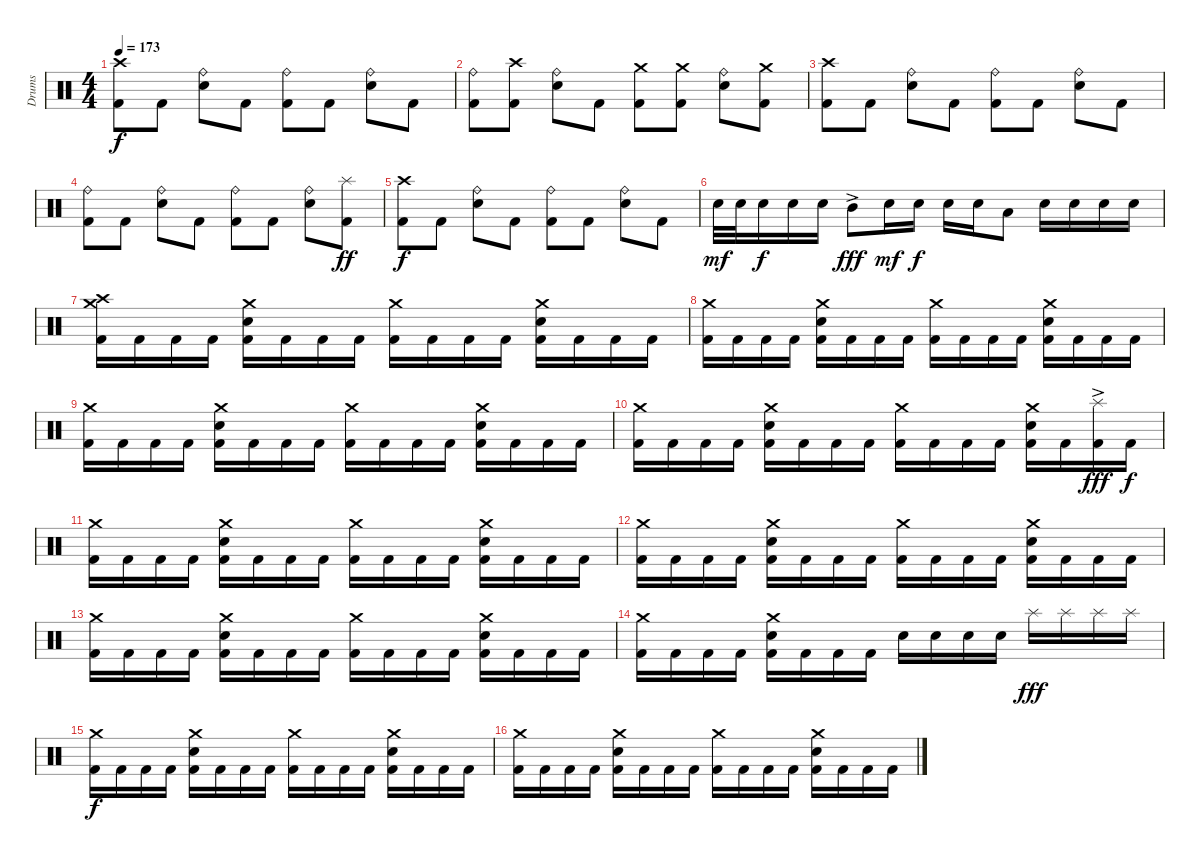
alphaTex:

\track ("Drums" "Drums") {instrument percussion}
\staff {score}
\articulation defaults
\ts (4 4)
\tempo 173
\clef neutral
\ks c
("Crash high (hit)" "Kick (hit) 2").8{dy f} "Kick (hit) 2".8 ("Ride (bell)" "Snare (hit) 2").8 "Kick (hit) 2".8 ("Ride (bell)" "Kick (hit) 2").8 "Kick (hit) 2".8 ("Ride (bell)" "Snare (hit) 2").8 "Kick (hit) 2".8 |
("Ride (bell)" "Kick (hit) 2").8 ("Crash high (hit)" "Kick (hit) 2").8 ("Ride (bell)" "Snare (hit) 2").8 "Kick (hit) 2".8 ("Crash medium (hit)" "Kick (hit) 2").8 ("Crash medium (hit)" "Kick (hit) 2").8 ("Ride (bell)" "Snare (hit) 2").8 ("Crash medium (hit)" "Kick (hit) 2").8 |
("Crash high (hit)" "Kick (hit) 2").8 "Kick (hit) 2".8 ("Ride (bell)" "Snare (hit) 2").8 "Kick (hit) 2".8 ("Ride (bell)" "Kick (hit) 2").8 "Kick (hit) 2".8 ("Ride (bell)" "Snare (hit) 2").8 "Kick (hit) 2".8 |
("Ride (bell)" "Kick (hit) 2").8 "Kick (hit) 2".8 ("Ride (bell)" "Snare (hit) 2").8 "Kick (hit) 2".8 ("Ride (bell)" "Kick (hit) 2").8 "Kick (hit) 2".8 ("Ride (bell)" "Snare (hit) 2").8 ("Splash (hit)" "Kick (hit) 2").8{dy ff} |
("Crash high (hit)" "Kick (hit) 2").8{dy f} "Kick (hit) 2".8 ("Ride (bell)" "Snare (hit) 2").8 "Kick (hit) 2".8 ("Ride (bell)" "Kick (hit) 2").8 "Kick (hit) 2".8 ("Ride (bell)" "Snare (hit) 2").8 "Kick (hit) 2".8 |
"Snare (hit) 2".32{dy mf} "Snare (hit) 2".32 "Snare (hit) 2".16{dy f} "Snare (hit) 2".16 "Snare (hit) 2".16 "Mid Tom (hit)"{ac}.8{dy fff} "Snare (hit) 2".16{dy mf} "Snare (hit) 2".16{dy f} "Snare (hit) 2".16 "Snare (hit) 2".16 "Low Tom (hit)".8 "Snare (hit) 2".16 "Snare (hit) 2".16 "Snare (hit) 2".16 "Snare (hit) 2".16 |
("Crash high (hit)" "Crash medium (hit)" "Kick (hit) 2").16 "Kick (hit) 2".16 "Kick (hit) 2".16 "Kick (hit) 2".16 ("Crash medium (hit)" "Snare (hit) 2" "Kick (hit) 2").16 "Kick (hit) 2".16 "Kick (hit) 2".16 "Kick (hit) 2".16 ("Crash medium (hit)" "Kick (hit) 2").16 "Kick (hit) 2".16 "Kick (hit) 2".16 "Kick (hit) 2".16 ("Crash medium (hit)" "Snare (hit) 2" "Kick (hit) 2").16 "Kick (hit) 2".16 "Kick (hit) 2".16 "Kick (hit) 2".16 |
("Crash medium (hit)" "Kick (hit) 2").16 "Kick (hit) 2".16 "Kick (hit) 2".16 "Kick (hit) 2".16 ("Crash medium (hit)" "Snare (hit) 2" "Kick (hit) 2").16 "Kick (hit) 2".16 "Kick (hit) 2".16 "Kick (hit) 2".16 ("Crash medium (hit)" "Kick (hit) 2").16 "Kick (hit) 2".16 "Kick (hit) 2".16 "Kick (hit) 2".16 ("Crash medium (hit)" "Snare (hit) 2" "Kick (hit) 2").16 "Kick (hit) 2".16 "Kick (hit) 2".16 "Kick (hit) 2".16 |
("Crash medium (hit)" "Kick (hit) 2").16 "Kick (hit) 2".16 "Kick (hit) 2".16 "Kick (hit) 2".16 ("Crash medium (hit)" "Snare (hit) 2" "Kick (hit) 2").16 "Kick (hit) 2".16 "Kick (hit) 2".16 "Kick (hit) 2".16 ("Crash medium (hit)" "Kick (hit) 2").16 "Kick (hit) 2".16 "Kick (hit) 2".16 "Kick (hit) 2".16 ("Crash medium (hit)" "Snare (hit) 2" "Kick (hit) 2").16 "Kick (hit) 2".16 "Kick (hit) 2".16 "Kick (hit) 2".16 |
("Crash medium (hit)" "Kick (hit) 2").16 "Kick (hit) 2".16 "Kick (hit) 2".16 "Kick (hit) 2".16 ("Crash medium (hit)" "Snare (hit) 2" "Kick (hit) 2").16 "Kick (hit) 2".16 "Kick (hit) 2".16 "Kick (hit) 2".16 ("Crash medium (hit)" "Kick (hit) 2").16 "Kick (hit) 2".16 "Kick (hit) 2".16 "Kick (hit) 2".16 ("Crash medium (hit)" "Snare (hit) 2" "Kick (hit) 2").16 "Kick (hit) 2".16 ("Splash (hit)"{ac} "Kick (hit) 2").16{dy fff} "Kick (hit) 2".16{dy f} |
("Crash medium (hit)" "Kick (hit) 2").16 "Kick (hit) 2".16 "Kick (hit) 2".16 "Kick (hit) 2".16 ("Crash medium (hit)" "Snare (hit) 2" "Kick (hit) 2").16 "Kick (hit) 2".16 "Kick (hit) 2".16 "Kick (hit) 2".16 ("Crash medium (hit)" "Kick (hit) 2").16 "Kick (hit) 2".16 "Kick (hit) 2".16 "Kick (hit) 2".16 ("Crash medium (hit)" "Snare (hit) 2" "Kick (hit) 2").16 "Kick (hit) 2".16 "Kick (hit) 2".16 "Kick (hit) 2".16 |
("Crash medium (hit)" "Kick (hit) 2").16 "Kick (hit) 2".16 "Kick (hit) 2".16 "Kick (hit) 2".16 ("Crash medium (hit)" "Snare (hit) 2" "Kick (hit) 2").16 "Kick (hit) 2".16 "Kick (hit) 2".16 "Kick (hit) 2".16 ("Crash medium (hit)" "Kick (hit) 2").16 "Kick (hit) 2".16 "Kick (hit) 2".16 "Kick (hit) 2".16 ("Crash medium (hit)" "Snare (hit) 2" "Kick (hit) 2").16 "Kick (hit) 2".16 "Kick (hit) 2".16 "Kick (hit) 2".16 |
("Crash medium (hit)" "Kick (hit) 2").16 "Kick (hit) 2".16 "Kick (hit) 2".16 "Kick (hit) 2".16 ("Crash medium (hit)" "Snare (hit) 2" "Kick (hit) 2").16 "Kick (hit) 2".16 "Kick (hit) 2".16 "Kick (hit) 2".16 ("Crash medium (hit)" "Kick (hit) 2").16 "Kick (hit) 2".16 "Kick (hit) 2".16 "Kick (hit) 2".16 ("Crash medium (hit)" "Snare (hit) 2" "Kick (hit) 2").16 "Kick (hit) 2".16 "Kick (hit) 2".16 "Kick (hit) 2".16 |
("Crash medium (hit)" "Kick (hit) 2").16 "Kick (hit) 2".16 "Kick (hit) 2".16 "Kick (hit) 2".16 ("Crash medium (hit)" "Snare (hit) 2" "Kick (hit) 2").16 "Kick (hit) 2".16 "Kick (hit) 2".16 "Kick (hit) 2".16 "Snare (hit) 2".16 "Snare (hit) 2".16 "Snare (hit) 2".16 "Snare (hit) 2".16 "Splash (hit)".16{dy fff} "Splash (hit)".16 "Splash (hit)".16 "Splash (hit)".16 |
("Crash medium (hit)" "Kick (hit) 2").16{dy f} "Kick (hit) 2".16 "Kick (hit) 2".16 "Kick (hit) 2".16 ("Crash medium (hit)" "Snare (hit) 2" "Kick (hit) 2").16 "Kick (hit) 2".16 "Kick (hit) 2".16 "Kick (hit) 2".16 ("Crash medium (hit)" "Kick (hit) 2").16 "Kick (hit) 2".16 "Kick (hit) 2".16 "Kick (hit) 2".16 ("Crash medium (hit)" "Snare (hit) 2" "Kick (hit) 2").16 "Kick (hit) 2".16 "Kick (hit) 2".16 "Kick (hit) 2".16 |
("Crash medium (hit)" "Kick (hit) 2").16 "Kick (hit) 2".16 "Kick (hit) 2".16 "Kick (hit) 2".16 ("Crash medium (hit)" "Snare (hit) 2" "Kick (hit) 2").16 "Kick (hit) 2".16 "Kick (hit) 2".16 "Kick (hit) 2".16 ("Crash medium (hit)" "Kick (hit) 2").16 "Kick (hit) 2".16 "Kick (hit) 2".16 "Kick (hit) 2".16 ("Crash medium (hit)" "Snare (hit) 2" "Kick (hit) 2").16 "Kick (hit) 2".16 "Kick (hit) 2".16 "Kick (hit) 2".16
